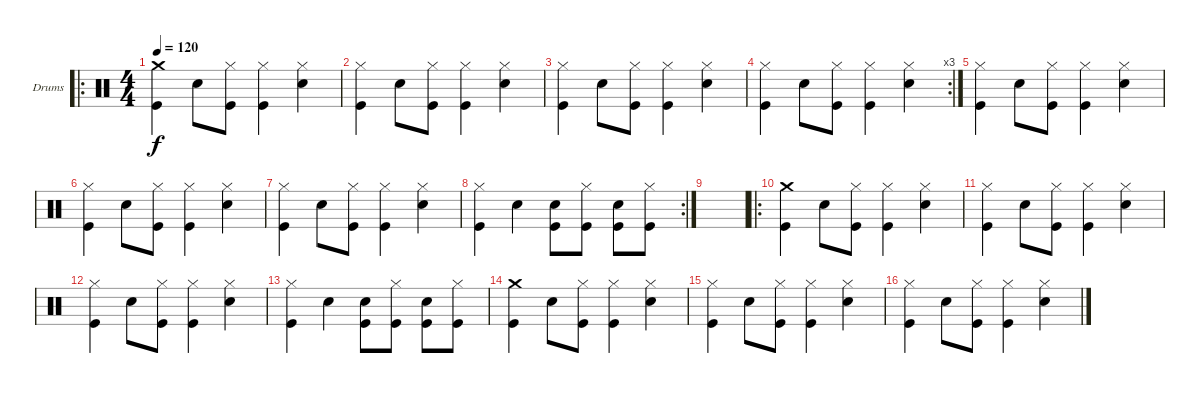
\defaultSystemsLayout 4
\bracketExtendMode groupsimilarinstruments
\firstSystemTrackNameOrientation horizontal
\otherSystemsTrackNameOrientation horizontal
\track ("Aleksei Lyubavin" "Drums") {instrument percussion}
\staff {score}
\articulation defaults
\ro
\ts (4 4)
\tempo 120
\clef neutral
\ks c
("Crash medium (hit)" "Kick (hit)").4{dy f} "Snare (hit) 2".8 ("Hi-Hat (closed)" "Kick (hit)").8 ("Hi-Hat (closed)" "Kick (hit)").4 ("Hi-Hat (closed)" "Snare (hit) 2").4 |
("Hi-Hat (closed)" "Kick (hit)").4 "Snare (hit) 2".8 ("Hi-Hat (closed)" "Kick (hit)").8 ("Hi-Hat (closed)" "Kick (hit)").4 ("Hi-Hat (closed)" "Snare (hit) 2").4 |
("Hi-Hat (closed)" "Kick (hit)").4 "Snare (hit) 2".8 ("Hi-Hat (closed)" "Kick (hit)").8 ("Hi-Hat (closed)" "Kick (hit)").4 ("Hi-Hat (closed)" "Snare (hit) 2").4 |
\rc 3
("Hi-Hat (closed)" "Kick (hit)").4 "Snare (hit) 2".8 ("Hi-Hat (closed)" "Kick (hit)").8 ("Hi-Hat (closed)" "Kick (hit)").4 ("Hi-Hat (closed)" "Snare (hit) 2").4 |
("Hi-Hat (closed)" "Kick (hit)").4 "Snare (hit) 2".8 ("Hi-Hat (closed)" "Kick (hit)").8 ("Hi-Hat (closed)" "Kick (hit)").4 ("Hi-Hat (closed)" "Snare (hit) 2").4 |
("Hi-Hat (closed)" "Kick (hit)").4 "Snare (hit) 2".8 ("Hi-Hat (closed)" "Kick (hit)").8 ("Hi-Hat (closed)" "Kick (hit)").4 ("Hi-Hat (closed)" "Snare (hit) 2").4 |
("Hi-Hat (closed)" "Kick (hit)").4 "Snare (hit) 2".8 ("Hi-Hat (closed)" "Kick (hit)").8 ("Hi-Hat (closed)" "Kick (hit)").4 ("Hi-Hat (closed)" "Snare (hit) 2").4 |
\rc 2
("Hi-Hat (closed)" "Kick (hit)").4 "Snare (hit) 2".4 ("Kick (hit)" "Snare (hit) 2").8 ("Hi-Hat (closed)" "Kick (hit)").8 ("Kick (hit)" "Snare (hit) 2").8 ("Hi-Hat (closed)" "Kick (hit)").8 |
|
\ro
("Crash medium (hit)" "Kick (hit)").4 "Snare (hit) 2".8 ("Hi-Hat (closed)" "Kick (hit)").8 ("Hi-Hat (closed)" "Kick (hit)").4 ("Hi-Hat (closed)" "Snare (hit) 2").4 |
("Hi-Hat (closed)" "Kick (hit)").4 "Snare (hit) 2".8 ("Hi-Hat (closed)" "Kick (hit)").8 ("Hi-Hat (closed)" "Kick (hit)").4 ("Hi-Hat (closed)" "Snare (hit) 2").4 |
("Hi-Hat (closed)" "Kick (hit)").4 "Snare (hit) 2".8 ("Hi-Hat (closed)" "Kick (hit)").8 ("Hi-Hat (closed)" "Kick (hit)").4 ("Hi-Hat (closed)" "Snare (hit) 2").4 |
("Hi-Hat (closed)" "Kick (hit)").4 "Snare (hit) 2".4 ("Kick (hit)" "Snare (hit) 2").8 ("Hi-Hat (closed)" "Kick (hit)").8 ("Kick (hit)" "Snare (hit) 2").8 ("Hi-Hat (closed)" "Kick (hit)").8 |
("Crash medium (hit)" "Kick (hit)").4 "Snare (hit) 2".8 ("Hi-Hat (closed)" "Kick (hit)").8 ("Hi-Hat (closed)" "Kick (hit)").4 ("Hi-Hat (closed)" "Snare (hit) 2").4 |
("Hi-Hat (closed)" "Kick (hit)").4 "Snare (hit) 2".8 ("Hi-Hat (closed)" "Kick (hit)").8 ("Hi-Hat (closed)" "Kick (hit)").4 ("Hi-Hat (closed)" "Snare (hit) 2").4 |
("Hi-Hat (closed)" "Kick (hit)").4 "Snare (hit) 2".8 ("Hi-Hat (closed)" "Kick (hit)").8 ("Hi-Hat (closed)" "Kick (hit)").4 ("Hi-Hat (closed)" "Snare (hit) 2").4
